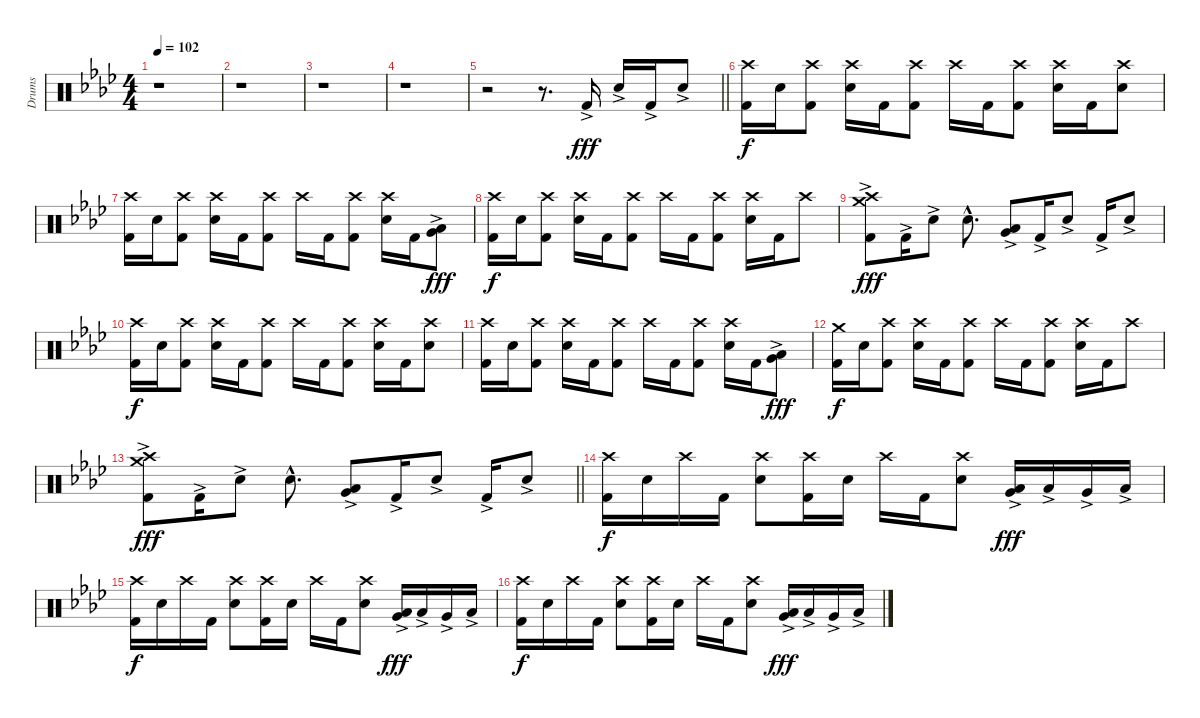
\track ("Drums" "Drums") {instrument percussion}
\staff {score}
\articulation defaults
\ts (4 4)
\tempo 102
\clef neutral
\ks fminor
r.1{dy fff} |
r.1 |
r.1 |
r.1 |
\barLineRight lightlight
r.2 r.8{d} "Kick (hit) 2"{ac}.16 "Snare (hit) 2"{ac}.16 "Kick (hit) 2"{ac}.16 "Snare (hit) 2"{ac}.8 |
("Crash high (hit)" "Kick (hit) 2").16{dy f} "Snare (hit) 2".16 ("Crash high (hit)" "Kick (hit) 2").8 ("Crash high (hit)" "Snare (hit) 2").16 "Kick (hit) 2".16 ("Crash high (hit)" "Kick (hit) 2").8 "Crash high (hit)".16 "Kick (hit) 2".16 ("Crash high (hit)" "Kick (hit) 2").8 ("Crash high (hit)" "Snare (hit) 2").16 "Kick (hit) 2".16 ("Crash high (hit)" "Snare (hit) 2").8 |
("Crash high (hit)" "Kick (hit) 2").16 "Snare (hit) 2".16 ("Crash high (hit)" "Kick (hit) 2").8 ("Crash high (hit)" "Snare (hit) 2").16 "Kick (hit) 2".16 ("Crash high (hit)" "Kick (hit) 2").8 "Crash high (hit)".16 "Kick (hit) 2".16 ("Crash high (hit)" "Kick (hit) 2").8 ("Crash high (hit)" "Snare (hit) 2").16 "Kick (hit) 2".16 ("Low Tom (hit)"{ac} "Very Low Tom (hit)"{ac}).8{dy fff} |
("Crash high (hit)" "Kick (hit) 2").16{dy f} "Snare (hit) 2".16 ("Crash high (hit)" "Kick (hit) 2").8 ("Crash high (hit)" "Snare (hit) 2").16 "Kick (hit) 2".16 ("Crash high (hit)" "Kick (hit) 2").8 "Crash high (hit)".16 "Kick (hit) 2".16 ("Crash high (hit)" "Kick (hit) 2").8 ("Crash high (hit)" "Snare (hit) 2").16 "Kick (hit) 2".16 "Crash high (hit)".8 |
("Crash high (hit)" "Crash medium (hit)" "Kick (hit) 2"{ac}).8{dy fff} "Kick (hit) 2"{ac}.16 "Snare (hit) 2"{ac}.8 "Snare (hit) 2"{hac}.8{d} ("Low Tom (hit)"{ac} "Very Low Tom (hit)"{ac}).8 "Kick (hit) 2"{ac}.16 "Snare (hit) 2"{ac}.8 "Kick (hit) 2"{ac}.16 "Snare (hit) 2"{ac}.8 |
("Crash high (hit)" "Kick (hit) 2").16{dy f} "Snare (hit) 2".16 ("Crash high (hit)" "Kick (hit) 2").8 ("Crash high (hit)" "Snare (hit) 2").16 "Kick (hit) 2".16 ("Crash high (hit)" "Kick (hit) 2").8 "Crash high (hit)".16 "Kick (hit) 2".16 ("Crash high (hit)" "Kick (hit) 2").8 ("Crash high (hit)" "Snare (hit) 2").16 "Kick (hit) 2".16 ("Crash high (hit)" "Snare (hit) 2").8 |
("Crash high (hit)" "Kick (hit) 2").16 "Snare (hit) 2".16 ("Crash high (hit)" "Kick (hit) 2").8 ("Crash high (hit)" "Snare (hit) 2").16 "Kick (hit) 2".16 ("Crash high (hit)" "Kick (hit) 2").8 "Crash high (hit)".16 "Kick (hit) 2".16 ("Crash high (hit)" "Kick (hit) 2").8 ("Crash high (hit)" "Snare (hit) 2").16 "Kick (hit) 2".16 ("Low Tom (hit)"{ac} "Very Low Tom (hit)"{ac}).8{dy fff} |
("Crash medium (hit)" "Kick (hit) 2").16{dy f} "Snare (hit) 2".16 ("Crash high (hit)" "Kick (hit) 2").8 ("Crash high (hit)" "Snare (hit) 2").16 "Kick (hit) 2".16 ("Crash high (hit)" "Kick (hit) 2").8 "Crash high (hit)".16 "Kick (hit) 2".16 ("Crash high (hit)" "Kick (hit) 2").8 ("Crash high (hit)" "Snare (hit) 2").16 "Kick (hit) 2".16 "Crash high (hit)".8 |
\barLineRight lightlight
("Crash high (hit)" "Crash medium (hit)" "Kick (hit) 2"{ac}).8{dy fff} "Kick (hit) 2"{ac}.16 "Snare (hit) 2"{ac}.8 "Snare (hit) 2"{hac}.8{d} ("Low Tom (hit)"{ac} "Very Low Tom (hit)"{ac}).8 "Kick (hit) 2"{ac}.16 "Snare (hit) 2"{ac}.8 "Kick (hit) 2"{ac}.16 "Snare (hit) 2"{ac}.8 |
("Crash high (hit)" "Kick (hit) 2").16{dy f} "Snare (hit) 2".16 "Crash high (hit)".16 "Kick (hit) 2".16 ("Crash high (hit)" "Snare (hit) 2").8 ("Crash high (hit)" "Kick (hit) 2").16 "Snare (hit) 2".16 "Crash high (hit)".16 "Kick (hit) 2".16 ("Crash high (hit)" "Snare (hit) 2").8 ("Low Tom (hit)"{ac} "Very Low Tom (hit)"{ac}).16{dy fff} "Low Tom (hit)"{ac}.16 "Very Low Tom (hit)"{ac}.16 "Low Floor Tom (hit)"{ac}.16 |
("Crash high (hit)" "Kick (hit) 2").16{dy f} "Snare (hit) 2".16 "Crash high (hit)".16 "Kick (hit) 2".16 ("Crash high (hit)" "Snare (hit) 2").8 ("Crash high (hit)" "Kick (hit) 2").16 "Snare (hit) 2".16 "Crash high (hit)".16 "Kick (hit) 2".16 ("Crash high (hit)" "Snare (hit) 2").8 ("Low Tom (hit)"{ac} "Very Low Tom (hit)"{ac}).16{dy fff} "Low Tom (hit)"{ac}.16 "Very Low Tom (hit)"{ac}.16 "Low Floor Tom (hit)"{ac}.16 |
("Crash high (hit)" "Kick (hit) 2").16{dy f} "Snare (hit) 2".16 "Crash high (hit)".16 "Kick (hit) 2".16 ("Crash high (hit)" "Snare (hit) 2").8 ("Crash high (hit)" "Kick (hit) 2").16 "Snare (hit) 2".16 "Crash high (hit)".16 "Kick (hit) 2".16 ("Crash high (hit)" "Snare (hit) 2").8 ("Low Tom (hit)"{ac} "Very Low Tom (hit)"{ac}).16{dy fff} "Low Tom (hit)"{ac}.16 "Very Low Tom (hit)"{ac}.16 "Low Floor Tom (hit)"{ac}.16
